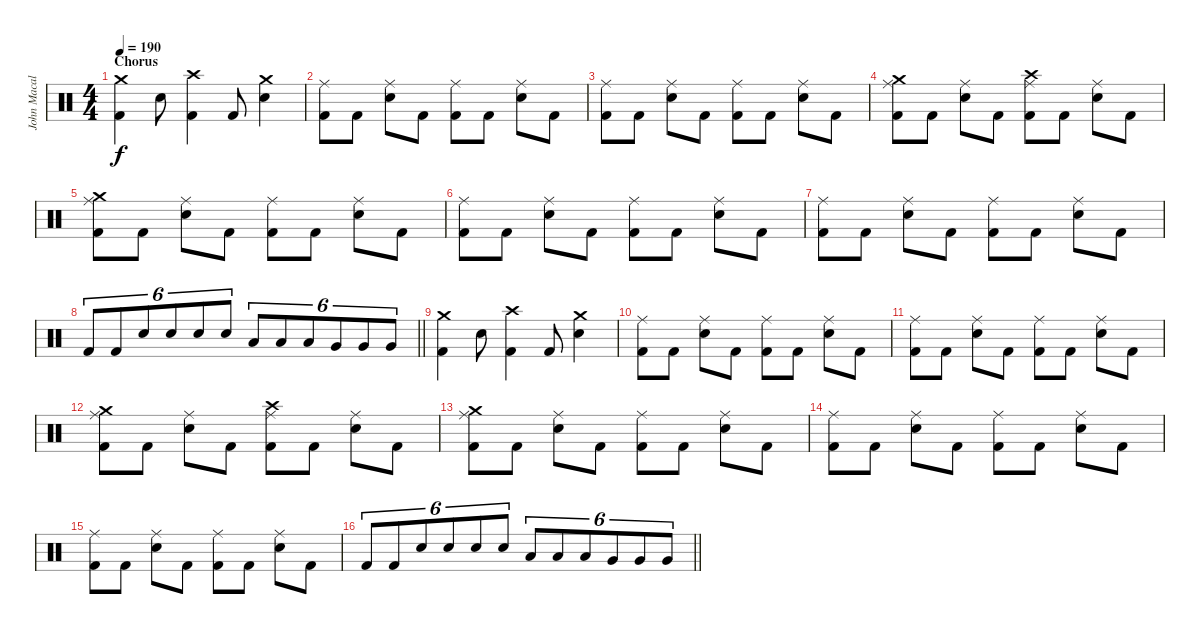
\track ("John Macaluso" "John Macal") {instrument percussion}
\staff {score}
\articulation defaults
\ts (4 4)
\section ("" "Chorus")
\tempo 190
\clef neutral
\ks c
("Crash medium (hit)" "Kick (hit) 2").4{dy f} "Snare (hit) 2".8 ("Crash high (hit)" "Kick (hit) 2").4 "Kick (hit) 2".8 ("Crash medium (hit)" "Snare (hit) 2").4 |
("Ride (middle)" "Kick (hit) 2").8 "Kick (hit) 2".8 ("Ride (middle)" "Snare (hit) 2").8 "Kick (hit) 2".8 ("Ride (middle)" "Kick (hit) 2").8 "Kick (hit) 2".8 ("Ride (middle)" "Snare (hit) 2").8 "Kick (hit) 2".8 |
("Ride (middle)" "Kick (hit) 2").8 "Kick (hit) 2".8 ("Ride (middle)" "Snare (hit) 2").8 "Kick (hit) 2".8 ("Ride (middle)" "Kick (hit) 2").8 "Kick (hit) 2".8 ("Ride (middle)" "Snare (hit) 2").8 "Kick (hit) 2".8 |
("Crash medium (hit)" "Ride (middle)" "Kick (hit) 2").8 "Kick (hit) 2".8 ("Ride (middle)" "Snare (hit) 2").8 "Kick (hit) 2".8 ("Crash high (hit)" "Ride (middle)" "Kick (hit) 2").8 "Kick (hit) 2".8 ("Ride (middle)" "Snare (hit) 2").8 "Kick (hit) 2".8 |
("Crash medium (hit)" "Ride (middle)" "Kick (hit) 2").8 "Kick (hit) 2".8 ("Ride (middle)" "Snare (hit) 2").8 "Kick (hit) 2".8 ("Ride (middle)" "Kick (hit) 2").8 "Kick (hit) 2".8 ("Ride (middle)" "Snare (hit) 2").8 "Kick (hit) 2".8 |
("Ride (middle)" "Kick (hit) 2").8 "Kick (hit) 2".8 ("Ride (middle)" "Snare (hit) 2").8 "Kick (hit) 2".8 ("Ride (middle)" "Kick (hit) 2").8 "Kick (hit) 2".8 ("Ride (middle)" "Snare (hit) 2").8 "Kick (hit) 2".8 |
("Ride (middle)" "Kick (hit) 2").8 "Kick (hit) 2".8 ("Ride (middle)" "Snare (hit) 2").8 "Kick (hit) 2".8 ("Ride (middle)" "Kick (hit) 2").8 "Kick (hit) 2".8 ("Ride (middle)" "Snare (hit) 2").8 "Kick (hit) 2".8 |
\barLineRight lightlight "Kick (hit) 2".8{tu (6 4)} "Kick (hit) 2".8{tu (6 4)} "Snare (hit) 2".8{tu (6 4)} "Snare (hit) 2".8{tu (6 4)} "Snare (hit) 2".8{tu (6 4)} "Snare (hit) 2".8{tu (6 4)} "Low Tom (hit)".8{tu (6 4)} "Low Tom (hit)".8{tu (6 4)} "Low Tom (hit)".8{tu (6 4)} "Very Low Tom (hit)".8{tu (6 4)} "Very Low Tom (hit)".8{tu (6 4)} "Very Low Tom (hit)".8{tu (6 4)}
|
("Crash medium (hit)" "Kick (hit) 2").4 "Snare (hit) 2".8 ("Crash high (hit)" "Kick (hit) 2").4 "Kick (hit) 2".8 ("Crash medium (hit)" "Snare (hit) 2").4 |
("Ride (middle)" "Kick (hit) 2").8 "Kick (hit) 2".8 ("Ride (middle)" "Snare (hit) 2").8 "Kick (hit) 2".8 ("Ride (middle)" "Kick (hit) 2").8 "Kick (hit) 2".8 ("Ride (middle)" "Snare (hit) 2").8 "Kick (hit) 2".8 |
("Ride (middle)" "Kick (hit) 2").8 "Kick (hit) 2".8 ("Ride (middle)" "Snare (hit) 2").8 "Kick (hit) 2".8 ("Ride (middle)" "Kick (hit) 2").8 "Kick (hit) 2".8 ("Ride (middle)" "Snare (hit) 2").8 "Kick (hit) 2".8 |
("Crash medium (hit)" "Ride (middle)" "Kick (hit) 2").8 "Kick (hit) 2".8 ("Ride (middle)" "Snare (hit) 2").8 "Kick (hit) 2".8 ("Crash high (hit)" "Ride (middle)" "Kick (hit) 2").8 "Kick (hit) 2".8 ("Ride (middle)" "Snare (hit) 2").8 "Kick (hit) 2".8 |
("Crash medium (hit)" "Ride (middle)" "Kick (hit) 2").8 "Kick (hit) 2".8 ("Ride (middle)" "Snare (hit) 2").8 "Kick (hit) 2".8 ("Ride (middle)" "Kick (hit) 2").8 "Kick (hit) 2".8 ("Ride (middle)" "Snare (hit) 2").8 "Kick (hit) 2".8 |
("Ride (middle)" "Kick (hit) 2").8 "Kick (hit) 2".8 ("Ride (middle)" "Snare (hit) 2").8 "Kick (hit) 2".8 ("Ride (middle)" "Kick (hit) 2").8 "Kick (hit) 2".8 ("Ride (middle)" "Snare (hit) 2").8 "Kick (hit) 2".8 |
("Ride (middle)" "Kick (hit) 2").8 "Kick (hit) 2".8 ("Ride (middle)" "Snare (hit) 2").8 "Kick (hit) 2".8 ("Ride (middle)" "Kick (hit) 2").8 "Kick (hit) 2".8 ("Ride (middle)" "Snare (hit) 2").8 "Kick (hit) 2".8 |
\barLineRight lightlight "Kick (hit) 2".8{tu (6 4)} "Kick (hit) 2".8{tu (6 4)} "Snare (hit) 2".8{tu (6 4)} "Snare (hit) 2".8{tu (6 4)} "Snare (hit) 2".8{tu (6 4)} "Snare (hit) 2".8{tu (6 4)} "Low Tom (hit)".8{tu (6 4)} "Low Tom (hit)".8{tu (6 4)} "Low Tom (hit)".8{tu (6 4)} "Very Low Tom (hit)".8{tu (6 4)} "Very Low Tom (hit)".8{tu (6 4)} "Very Low Tom (hit)".8{tu (6 4)}
